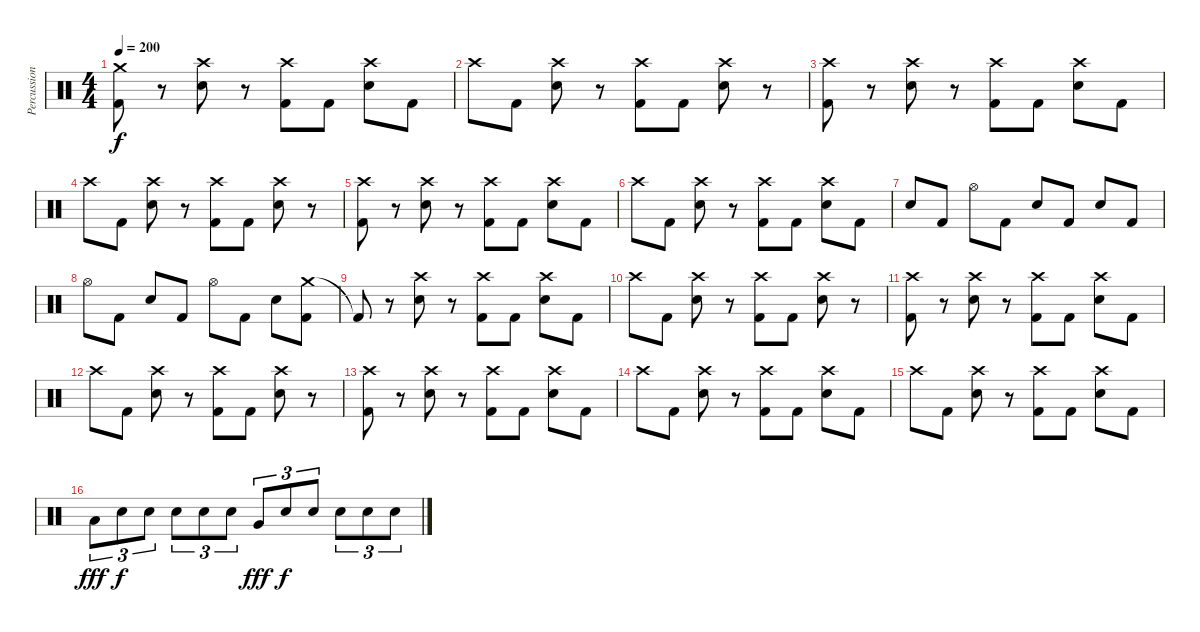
\track ("Percussion" "Percussion") {instrument percussion}
\staff {score}
\articulation defaults
\ts (4 4)
\tempo 200
\clef neutral
\ks c
("Crash medium (hit)" "Kick (hit) 2").8{dy f} r.8 ("Crash high (hit)" "Electric Snare (hit)").8 r.8 ("Crash high (hit)" "Kick (hit) 2").8 "Kick (hit) 2".8 ("Crash high (hit)" "Electric Snare (hit)").8 "Kick (hit) 2".8 |
"Crash high (hit)".8 "Kick (hit) 2".8 ("Crash high (hit)" "Electric Snare (hit)").8 r.8 ("Crash high (hit)" "Kick (hit) 2").8 "Kick (hit) 2".8 ("Crash high (hit)" "Electric Snare (hit)").8 r.8 |
("Crash high (hit)" "Kick (hit) 2").8 r.8 ("Crash high (hit)" "Electric Snare (hit)").8 r.8 ("Crash high (hit)" "Kick (hit) 2").8 "Kick (hit) 2".8 ("Crash high (hit)" "Electric Snare (hit)").8 "Kick (hit) 2".8 |
"Crash high (hit)".8 "Kick (hit) 2".8 ("Crash high (hit)" "Electric Snare (hit)").8 r.8 ("Crash high (hit)" "Kick (hit) 2").8 "Kick (hit) 2".8 ("Crash high (hit)" "Electric Snare (hit)").8 r.8 |
("Crash high (hit)" "Kick (hit) 2").8 r.8 ("Crash high (hit)" "Electric Snare (hit)").8 r.8 ("Crash high (hit)" "Kick (hit) 2").8 "Kick (hit) 2".8 ("Crash high (hit)" "Electric Snare (hit)").8 "Kick (hit) 2".8 |
"Crash high (hit)".8 "Kick (hit) 2".8 ("Crash high (hit)" "Electric Snare (hit)").8 r.8 ("Crash high (hit)" "Kick (hit) 2").8 "Kick (hit) 2".8 ("Crash high (hit)" "Electric Snare (hit)").8 "Kick (hit) 2".8 |
"Electric Snare (hit)".8 "Kick (hit) 2".8 "Hi-Hat (open)".8 "Kick (hit) 2".8 "Electric Snare (hit)".8 "Kick (hit) 2".8 "Electric Snare (hit)".8 "Kick (hit) 2".8 |
"Hi-Hat (open)".8 "Kick (hit) 2".8 "Electric Snare (hit)".8 "Kick (hit) 2".8 "Hi-Hat (open)".8 "Kick (hit) 2".8 "Electric Snare (hit)".8 ("Crash medium (hit)" "Kick (hit) 2").8 |
"Kick (hit) 2"{t}.8 r.8 ("Crash high (hit)" "Electric Snare (hit)").8 r.8 ("Crash high (hit)" "Kick (hit) 2").8 "Kick (hit) 2".8 ("Crash high (hit)" "Electric Snare (hit)").8 "Kick (hit) 2".8 |
"Crash high (hit)".8 "Kick (hit) 2".8 ("Crash high (hit)" "Electric Snare (hit)").8 r.8 ("Crash high (hit)" "Kick (hit) 2").8 "Kick (hit) 2".8 ("Crash high (hit)" "Electric Snare (hit)").8 r.8 |
("Crash high (hit)" "Kick (hit) 2").8 r.8 ("Crash high (hit)" "Electric Snare (hit)").8 r.8 ("Crash high (hit)" "Kick (hit) 2").8 "Kick (hit) 2".8 ("Crash high (hit)" "Electric Snare (hit)").8 "Kick (hit) 2".8 |
"Crash high (hit)".8 "Kick (hit) 2".8 ("Crash high (hit)" "Electric Snare (hit)").8 r.8 ("Crash high (hit)" "Kick (hit) 2").8 "Kick (hit) 2".8 ("Crash high (hit)" "Electric Snare (hit)").8 r.8 |
("Crash high (hit)" "Kick (hit) 2").8 r.8 ("Crash high (hit)" "Electric Snare (hit)").8 r.8 ("Crash high (hit)" "Kick (hit) 2").8 "Kick (hit) 2".8 ("Crash high (hit)" "Electric Snare (hit)").8 "Kick (hit) 2".8 |
"Crash high (hit)".8 "Kick (hit) 2".8 ("Crash high (hit)" "Electric Snare (hit)").8 r.8 ("Crash high (hit)" "Kick (hit) 2").8 "Kick (hit) 2".8 ("Crash high (hit)" "Electric Snare (hit)").8 "Kick (hit) 2".8 |
"Crash high (hit)".8 "Kick (hit) 2".8 ("Crash high (hit)" "Electric Snare (hit)").8 r.8 ("Crash high (hit)" "Kick (hit) 2").8 "Kick (hit) 2".8 ("Crash high (hit)" "Electric Snare (hit)").8 "Kick (hit) 2".8 |
"Low Tom (hit)".8{tu (3 2) dy fff} "Electric Snare (hit)".8{tu (3 2) dy f} "Electric Snare (hit)".8{tu (3 2)} "Electric Snare (hit)".8{tu (3 2)} "Electric Snare (hit)".8{tu (3 2)} "Electric Snare (hit)".8{tu (3 2)} "Very Low Tom (hit)".8{tu (3 2) dy fff} "Electric Snare (hit)".8{tu (3 2) dy f} "Electric Snare (hit)".8{tu (3 2)} "Electric Snare (hit)".8{tu (3 2)} "Electric Snare (hit)".8{tu (3 2)} "Electric Snare (hit)".8{tu (3 2)}
